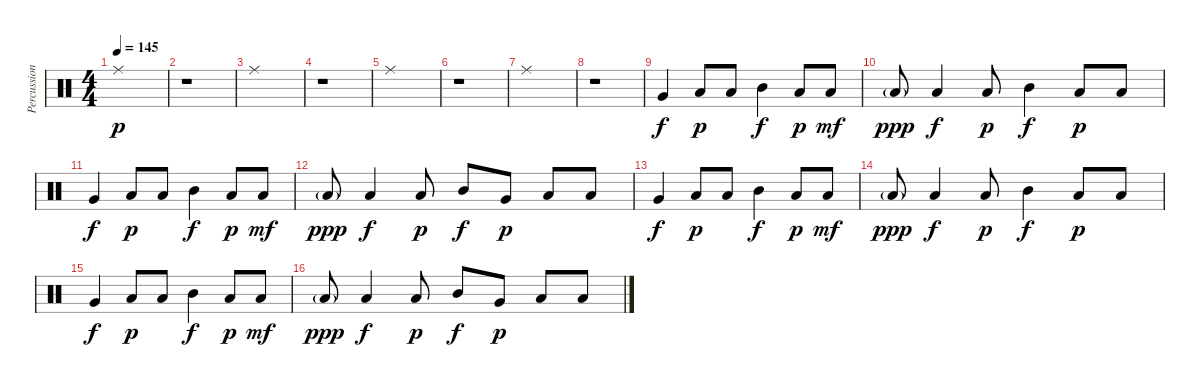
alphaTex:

\track ("Percussion" "Percussion") {instrument percussion}
\staff {score}
\articulation defaults
\ts (4 4)
\tempo 145
\clef neutral
\ks c "Ride (middle)".1{dy p}
|
r.1 |
"Ride (middle)".1 |
r.1 |
"Ride (middle)".1 |
r.1 |
"Ride (middle)".1 |
r.1 |
"Very Low Tom (hit)".4{dy f} "Low Floor Tom (hit)".8{dy p} "Low Floor Tom (hit)".8 "Mid Tom (hit)".4{dy f} "Low Floor Tom (hit)".8{dy p} "Low Tom (hit)".8{dy mf} |
"Low Floor Tom (hit)"{g}.8{dy ppp} "Low Tom (hit)".4{dy f} "Low Floor Tom (hit)".8{dy p} "Mid Tom (hit)".4{dy f} "Low Floor Tom (hit)".8{dy p} "Low Floor Tom (hit)".8 |
"Very Low Tom (hit)".4{dy f} "Low Floor Tom (hit)".8{dy p} "Low Floor Tom (hit)".8 "Mid Tom (hit)".4{dy f} "Low Floor Tom (hit)".8{dy p} "Low Tom (hit)".8{dy mf} |
"Low Floor Tom (hit)"{g}.8{dy ppp} "Low Tom (hit)".4{dy f} "Low Floor Tom (hit)".8{dy p} "Mid Tom (hit)".8{dy f} "Very Low Tom (hit)".8{dy p} "Low Floor Tom (hit)".8 "Low Floor Tom (hit)".8 |
"Very Low Tom (hit)".4{dy f} "Low Floor Tom (hit)".8{dy p} "Low Floor Tom (hit)".8 "Mid Tom (hit)".4{dy f} "Low Floor Tom (hit)".8{dy p} "Low Tom (hit)".8{dy mf} |
"Low Floor Tom (hit)"{g}.8{dy ppp} "Low Tom (hit)".4{dy f} "Low Floor Tom (hit)".8{dy p} "Mid Tom (hit)".4{dy f} "Low Floor Tom (hit)".8{dy p} "Low Floor Tom (hit)".8 |
"Very Low Tom (hit)".4{dy f} "Low Floor Tom (hit)".8{dy p} "Low Floor Tom (hit)".8 "Mid Tom (hit)".4{dy f} "Low Floor Tom (hit)".8{dy p} "Low Tom (hit)".8{dy mf} |
"Low Floor Tom (hit)"{g}.8{dy ppp} "Low Tom (hit)".4{dy f} "Low Floor Tom (hit)".8{dy p} "Mid Tom (hit)".8{dy f} "Very Low Tom (hit)".8{dy p} "Low Floor Tom (hit)".8 "Low Floor Tom (hit)".8
